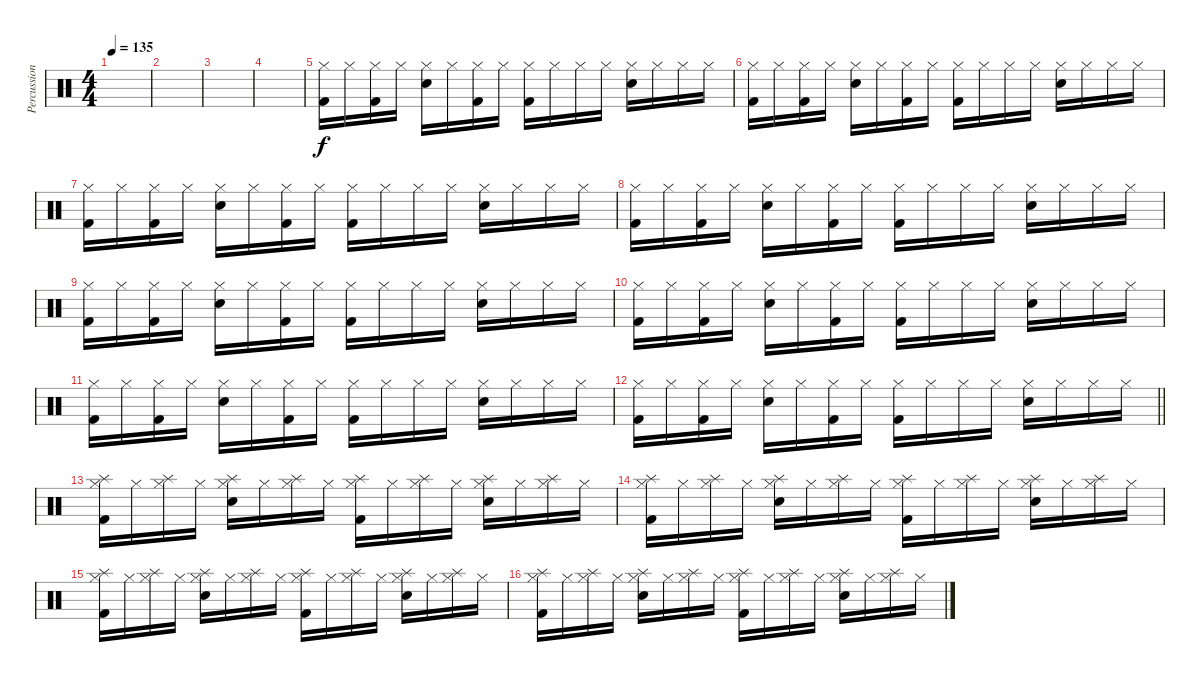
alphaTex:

\track ("Percussion" "Percussion") {instrument percussion}
\staff {score}
\articulation defaults
\ts (4 4)
\tempo 135
\clef neutral
\ks c
|
|
|
|
("Hi-Hat (closed)" "Kick (hit) 2").16{dy f} "Hi-Hat (closed)".16 ("Hi-Hat (closed)" "Kick (hit) 2").16 "Hi-Hat (closed)".16 ("Hi-Hat (closed)" "Snare (hit) 2").16 "Hi-Hat (closed)".16 ("Hi-Hat (closed)" "Kick (hit) 2").16 "Hi-Hat (closed)".16 ("Hi-Hat (closed)" "Kick (hit) 2").16 "Hi-Hat (closed)".16 "Hi-Hat (closed)".16 "Hi-Hat (closed)".16 ("Hi-Hat (closed)" "Snare (hit) 2").16 "Hi-Hat (closed)".16 "Hi-Hat (closed)".16 "Hi-Hat (closed)".16 |
("Hi-Hat (closed)" "Kick (hit) 2").16 "Hi-Hat (closed)".16 ("Hi-Hat (closed)" "Kick (hit) 2").16 "Hi-Hat (closed)".16 ("Hi-Hat (closed)" "Snare (hit) 2").16 "Hi-Hat (closed)".16 ("Hi-Hat (closed)" "Kick (hit) 2").16 "Hi-Hat (closed)".16 ("Hi-Hat (closed)" "Kick (hit) 2").16 "Hi-Hat (closed)".16 "Hi-Hat (closed)".16 "Hi-Hat (closed)".16 ("Hi-Hat (closed)" "Snare (hit) 2").16 "Hi-Hat (closed)".16 "Hi-Hat (closed)".16 "Hi-Hat (closed)".16 |
("Hi-Hat (closed)" "Kick (hit) 2").16 "Hi-Hat (closed)".16 ("Hi-Hat (closed)" "Kick (hit) 2").16 "Hi-Hat (closed)".16 ("Hi-Hat (closed)" "Snare (hit) 2").16 "Hi-Hat (closed)".16 ("Hi-Hat (closed)" "Kick (hit) 2").16 "Hi-Hat (closed)".16 ("Hi-Hat (closed)" "Kick (hit) 2").16 "Hi-Hat (closed)".16 "Hi-Hat (closed)".16 "Hi-Hat (closed)".16 ("Hi-Hat (closed)" "Snare (hit) 2").16 "Hi-Hat (closed)".16 "Hi-Hat (closed)".16 "Hi-Hat (closed)".16 |
("Hi-Hat (closed)" "Kick (hit) 2").16 "Hi-Hat (closed)".16 ("Hi-Hat (closed)" "Kick (hit) 2").16 "Hi-Hat (closed)".16 ("Hi-Hat (closed)" "Snare (hit) 2").16 "Hi-Hat (closed)".16 ("Hi-Hat (closed)" "Kick (hit) 2").16 "Hi-Hat (closed)".16 ("Hi-Hat (closed)" "Kick (hit) 2").16 "Hi-Hat (closed)".16 "Hi-Hat (closed)".16 "Hi-Hat (closed)".16 ("Hi-Hat (closed)" "Snare (hit) 2").16 "Hi-Hat (closed)".16 "Hi-Hat (closed)".16 "Hi-Hat (closed)".16 |
("Hi-Hat (closed)" "Kick (hit) 2").16 "Hi-Hat (closed)".16 ("Hi-Hat (closed)" "Kick (hit) 2").16 "Hi-Hat (closed)".16 ("Hi-Hat (closed)" "Snare (hit) 2").16 "Hi-Hat (closed)".16 ("Hi-Hat (closed)" "Kick (hit) 2").16 "Hi-Hat (closed)".16 ("Hi-Hat (closed)" "Kick (hit) 2").16 "Hi-Hat (closed)".16 "Hi-Hat (closed)".16 "Hi-Hat (closed)".16 ("Hi-Hat (closed)" "Snare (hit) 2").16 "Hi-Hat (closed)".16 "Hi-Hat (closed)".16 "Hi-Hat (closed)".16 |
("Hi-Hat (closed)" "Kick (hit) 2").16 "Hi-Hat (closed)".16 ("Hi-Hat (closed)" "Kick (hit) 2").16 "Hi-Hat (closed)".16 ("Hi-Hat (closed)" "Snare (hit) 2").16 "Hi-Hat (closed)".16 ("Hi-Hat (closed)" "Kick (hit) 2").16 "Hi-Hat (closed)".16 ("Hi-Hat (closed)" "Kick (hit) 2").16 "Hi-Hat (closed)".16 "Hi-Hat (closed)".16 "Hi-Hat (closed)".16 ("Hi-Hat (closed)" "Snare (hit) 2").16 "Hi-Hat (closed)".16 "Hi-Hat (closed)".16 "Hi-Hat (closed)".16 |
("Hi-Hat (closed)" "Kick (hit) 2").16 "Hi-Hat (closed)".16 ("Hi-Hat (closed)" "Kick (hit) 2").16 "Hi-Hat (closed)".16 ("Hi-Hat (closed)" "Snare (hit) 2").16 "Hi-Hat (closed)".16 ("Hi-Hat (closed)" "Kick (hit) 2").16 "Hi-Hat (closed)".16 ("Hi-Hat (closed)" "Kick (hit) 2").16 "Hi-Hat (closed)".16 "Hi-Hat (closed)".16 "Hi-Hat (closed)".16 ("Hi-Hat (closed)" "Snare (hit) 2").16 "Hi-Hat (closed)".16 "Hi-Hat (closed)".16 "Hi-Hat (closed)".16 |
\barLineRight lightlight
("Hi-Hat (closed)" "Kick (hit) 2").16 "Hi-Hat (closed)".16 ("Hi-Hat (closed)" "Kick (hit) 2").16 "Hi-Hat (closed)".16 ("Hi-Hat (closed)" "Snare (hit) 2").16 "Hi-Hat (closed)".16 ("Hi-Hat (closed)" "Kick (hit) 2").16 "Hi-Hat (closed)".16 ("Hi-Hat (closed)" "Kick (hit) 2").16 "Hi-Hat (closed)".16 "Hi-Hat (closed)".16 "Hi-Hat (closed)".16 ("Hi-Hat (closed)" "Snare (hit) 2").16 "Hi-Hat (closed)".16 "Hi-Hat (closed)".16 "Hi-Hat (closed)".16 |
("Hi-Hat (closed)" "Splash (hit)" "Kick (hit) 2").16 "Hi-Hat (closed)".16 ("Hi-Hat (closed)" "Splash (hit)").16 "Hi-Hat (closed)".16 ("Hi-Hat (closed)" "Splash (hit)" "Snare (hit) 2").16 "Hi-Hat (closed)".16 ("Hi-Hat (closed)" "Splash (hit)").16 "Hi-Hat (closed)".16 ("Hi-Hat (closed)" "Splash (hit)" "Kick (hit) 2").16 "Hi-Hat (closed)".16 ("Hi-Hat (closed)" "Splash (hit)").16 "Hi-Hat (closed)".16 ("Hi-Hat (closed)" "Splash (hit)" "Snare (hit) 2").16 "Hi-Hat (closed)".16 ("Hi-Hat (closed)" "Splash (hit)").16 "Hi-Hat (closed)".16 |
("Hi-Hat (closed)" "Splash (hit)" "Kick (hit) 2").16 "Hi-Hat (closed)".16 ("Hi-Hat (closed)" "Splash (hit)").16 "Hi-Hat (closed)".16 ("Hi-Hat (closed)" "Splash (hit)" "Snare (hit) 2").16 "Hi-Hat (closed)".16 ("Hi-Hat (closed)" "Splash (hit)").16 "Hi-Hat (closed)".16 ("Hi-Hat (closed)" "Splash (hit)" "Kick (hit) 2").16 "Hi-Hat (closed)".16 ("Hi-Hat (closed)" "Splash (hit)").16 "Hi-Hat (closed)".16 ("Hi-Hat (closed)" "Splash (hit)" "Snare (hit) 2").16 "Hi-Hat (closed)".16 ("Hi-Hat (closed)" "Splash (hit)").16 "Hi-Hat (closed)".16 |
("Hi-Hat (closed)" "Splash (hit)" "Kick (hit) 2").16 "Hi-Hat (closed)".16 ("Hi-Hat (closed)" "Splash (hit)").16 "Hi-Hat (closed)".16 ("Hi-Hat (closed)" "Splash (hit)" "Snare (hit) 2").16 "Hi-Hat (closed)".16 ("Hi-Hat (closed)" "Splash (hit)").16 "Hi-Hat (closed)".16 ("Hi-Hat (closed)" "Splash (hit)" "Kick (hit) 2").16 "Hi-Hat (closed)".16 ("Hi-Hat (closed)" "Splash (hit)").16 "Hi-Hat (closed)".16 ("Hi-Hat (closed)" "Splash (hit)" "Snare (hit) 2").16 "Hi-Hat (closed)".16 ("Hi-Hat (closed)" "Splash (hit)").16 "Hi-Hat (closed)".16 |
("Hi-Hat (closed)" "Splash (hit)" "Kick (hit) 2").16 "Hi-Hat (closed)".16 ("Hi-Hat (closed)" "Splash (hit)").16 "Hi-Hat (closed)".16 ("Hi-Hat (closed)" "Splash (hit)" "Snare (hit) 2").16 "Hi-Hat (closed)".16 ("Hi-Hat (closed)" "Splash (hit)").16 "Hi-Hat (closed)".16 ("Hi-Hat (closed)" "Splash (hit)" "Kick (hit) 2").16 "Hi-Hat (closed)".16 ("Hi-Hat (closed)" "Splash (hit)").16 "Hi-Hat (closed)".16 ("Hi-Hat (closed)" "Splash (hit)" "Snare (hit) 2").16 "Hi-Hat (closed)".16 ("Hi-Hat (closed)" "Splash (hit)").16 "Hi-Hat (closed)".16
